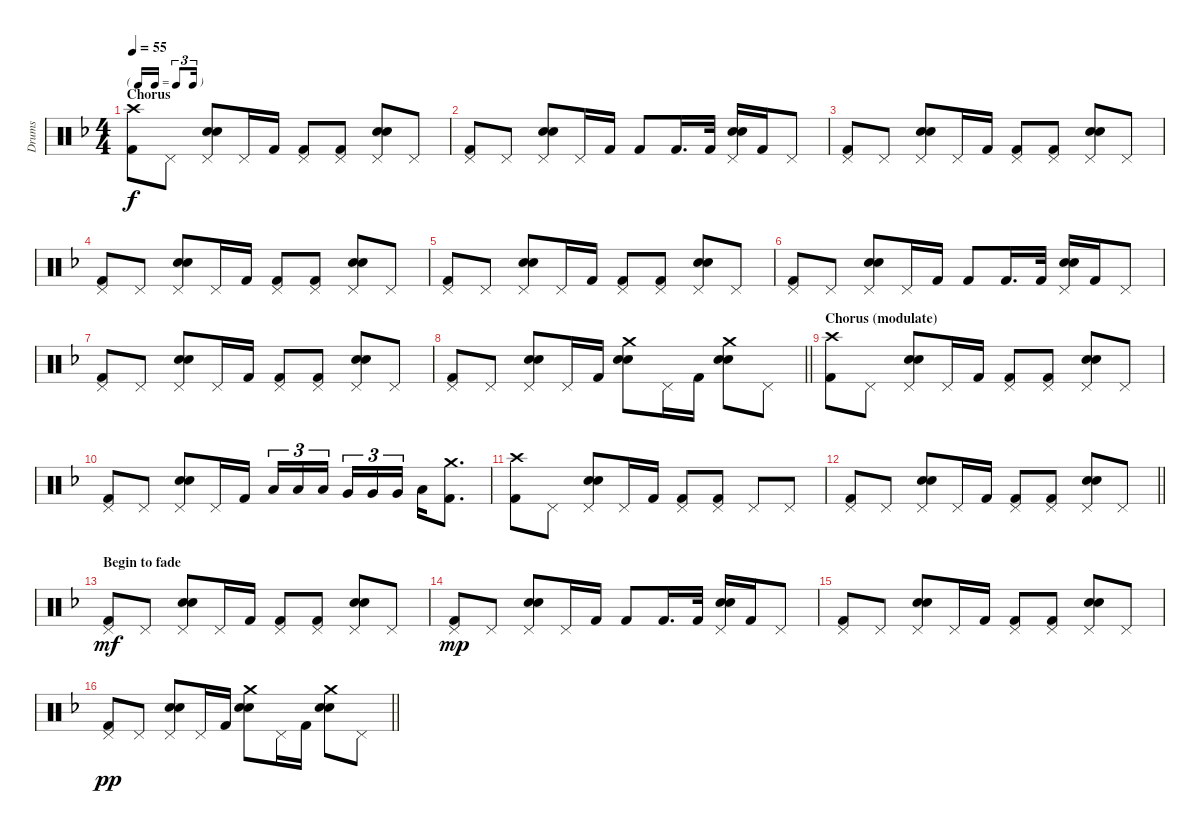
\track ("Drums" "Drums") {instrument percussion}
\staff {score}
\articulation defaults
\ts (4 4)
\tf triplet16th
\section ("" "Chorus")
\tempo 55
\clef neutral
\ks dminor
("Crash high (hit)" "Kick (hit) 2").8{dy f} "Pedal Hi-Hat (hit)".8 ("Pedal Hi-Hat (hit)" "Snare (hit) 2" "Electric Snare (hit)").8 "Pedal Hi-Hat (hit)".16 "Kick (hit) 2".16 ("Pedal Hi-Hat (hit)" "Kick (hit) 2").8 ("Pedal Hi-Hat (hit)" "Kick (hit) 2").8 ("Pedal Hi-Hat (hit)" "Snare (hit) 2" "Electric Snare (hit)").8 "Pedal Hi-Hat (hit)".8 |
("Pedal Hi-Hat (hit)" "Kick (hit) 2").8 "Pedal Hi-Hat (hit)".8 ("Pedal Hi-Hat (hit)" "Snare (hit) 2" "Electric Snare (hit)").8 "Pedal Hi-Hat (hit)".16 "Kick (hit) 2".16 "Kick (hit) 2".8 "Kick (hit) 2".16{d} "Kick (hit) 2".32 ("Pedal Hi-Hat (hit)" "Snare (hit) 2" "Electric Snare (hit)").16 "Kick (hit) 2".16 "Pedal Hi-Hat (hit)".8 |
("Pedal Hi-Hat (hit)" "Kick (hit) 2").8 "Pedal Hi-Hat (hit)".8 ("Pedal Hi-Hat (hit)" "Snare (hit) 2" "Electric Snare (hit)").8 "Pedal Hi-Hat (hit)".16 "Kick (hit) 2".16 ("Pedal Hi-Hat (hit)" "Kick (hit) 2").8 ("Pedal Hi-Hat (hit)" "Kick (hit) 2").8 ("Pedal Hi-Hat (hit)" "Snare (hit) 2" "Electric Snare (hit)").8 "Pedal Hi-Hat (hit)".8 |
("Pedal Hi-Hat (hit)" "Kick (hit) 2").8 "Pedal Hi-Hat (hit)".8 ("Pedal Hi-Hat (hit)" "Snare (hit) 2" "Electric Snare (hit)").8 "Pedal Hi-Hat (hit)".16 "Kick (hit) 2".16 ("Pedal Hi-Hat (hit)" "Kick (hit) 2").8 ("Pedal Hi-Hat (hit)" "Kick (hit) 2").8 ("Pedal Hi-Hat (hit)" "Snare (hit) 2" "Electric Snare (hit)").8 "Pedal Hi-Hat (hit)".8 |
("Pedal Hi-Hat (hit)" "Kick (hit) 2").8 "Pedal Hi-Hat (hit)".8 ("Pedal Hi-Hat (hit)" "Snare (hit) 2" "Electric Snare (hit)").8 "Pedal Hi-Hat (hit)".16 "Kick (hit) 2".16 ("Pedal Hi-Hat (hit)" "Kick (hit) 2").8 ("Pedal Hi-Hat (hit)" "Kick (hit) 2").8 ("Pedal Hi-Hat (hit)" "Snare (hit) 2" "Electric Snare (hit)").8 "Pedal Hi-Hat (hit)".8 |
("Pedal Hi-Hat (hit)" "Kick (hit) 2").8 "Pedal Hi-Hat (hit)".8 ("Pedal Hi-Hat (hit)" "Snare (hit) 2" "Electric Snare (hit)").8 "Pedal Hi-Hat (hit)".16 "Kick (hit) 2".16 "Kick (hit) 2".8 "Kick (hit) 2".16{d} "Kick (hit) 2".32 ("Pedal Hi-Hat (hit)" "Snare (hit) 2" "Electric Snare (hit)").16 "Kick (hit) 2".16 "Pedal Hi-Hat (hit)".8 |
("Pedal Hi-Hat (hit)" "Kick (hit) 2").8 "Pedal Hi-Hat (hit)".8 ("Pedal Hi-Hat (hit)" "Snare (hit) 2" "Electric Snare (hit)").8 "Pedal Hi-Hat (hit)".16 "Kick (hit) 2".16 ("Pedal Hi-Hat (hit)" "Kick (hit) 2").8 ("Pedal Hi-Hat (hit)" "Kick (hit) 2").8 ("Pedal Hi-Hat (hit)" "Snare (hit) 2" "Electric Snare (hit)").8 "Pedal Hi-Hat (hit)".8 |
\barLineRight lightlight
("Pedal Hi-Hat (hit)" "Kick (hit) 2").8 "Pedal Hi-Hat (hit)".8 ("Pedal Hi-Hat (hit)" "Snare (hit) 2" "Electric Snare (hit)").8 "Pedal Hi-Hat (hit)".16 "Kick (hit) 2".16 ("Crash medium (hit)" "Snare (hit) 2" "Electric Snare (hit)").8 "Pedal Hi-Hat (hit)".16 "Kick (hit) 2".16 ("Crash medium (hit)" "Snare (hit) 2" "Electric Snare (hit)").8 "Pedal Hi-Hat (hit)".8 |
\section ("" "Chorus (modulate)")
("Crash high (hit)" "Kick (hit) 2").8 "Pedal Hi-Hat (hit)".8 ("Pedal Hi-Hat (hit)" "Snare (hit) 2" "Electric Snare (hit)").8 "Pedal Hi-Hat (hit)".16 "Kick (hit) 2".16 ("Pedal Hi-Hat (hit)" "Kick (hit) 2").8 ("Pedal Hi-Hat (hit)" "Kick (hit) 2").8 ("Pedal Hi-Hat (hit)" "Snare (hit) 2" "Electric Snare (hit)").8 "Pedal Hi-Hat (hit)".8 |
("Pedal Hi-Hat (hit)" "Kick (hit) 2").8 "Pedal Hi-Hat (hit)".8 ("Pedal Hi-Hat (hit)" "Snare (hit) 2" "Electric Snare (hit)").8 "Pedal Hi-Hat (hit)".16 "Kick (hit) 2".16 "Low Tom (hit)".16{tu (3 2)} "Low Tom (hit)".16{tu (3 2)} "Low Tom (hit)".16{tu (3 2) beam splitsecondary} "Very Low Tom (hit)".16{tu (3 2)} "Very Low Tom (hit)".16{tu (3 2)} "Very Low Tom (hit)".16{tu (3 2)} "Low Tom (hit)".16 ("Crash medium (hit)" "Kick (hit) 2").8{d} |
("Crash high (hit)" "Kick (hit) 2").8 "Pedal Hi-Hat (hit)".8 ("Pedal Hi-Hat (hit)" "Snare (hit) 2" "Electric Snare (hit)").8 "Pedal Hi-Hat (hit)".16 "Kick (hit) 2".16 ("Pedal Hi-Hat (hit)" "Kick (hit) 2").8 ("Pedal Hi-Hat (hit)" "Kick (hit) 2").8 "Pedal Hi-Hat (hit)".8 "Pedal Hi-Hat (hit)".8 |
\barLineRight lightlight
("Pedal Hi-Hat (hit)" "Kick (hit) 2").8 "Pedal Hi-Hat (hit)".8 ("Pedal Hi-Hat (hit)" "Snare (hit) 2" "Electric Snare (hit)").8 "Pedal Hi-Hat (hit)".16 "Kick (hit) 2".16 ("Pedal Hi-Hat (hit)" "Kick (hit) 2").8 ("Pedal Hi-Hat (hit)" "Kick (hit) 2").8 ("Pedal Hi-Hat (hit)" "Snare (hit) 2" "Electric Snare (hit)").8 "Pedal Hi-Hat (hit)".8 |
\section ("" "Begin to fade")
("Pedal Hi-Hat (hit)" "Kick (hit) 2").8{dy mf} "Pedal Hi-Hat (hit)".8 ("Pedal Hi-Hat (hit)" "Snare (hit) 2" "Electric Snare (hit)").8 "Pedal Hi-Hat (hit)".16 "Kick (hit) 2".16 ("Pedal Hi-Hat (hit)" "Kick (hit) 2").8 ("Pedal Hi-Hat (hit)" "Kick (hit) 2").8 ("Pedal Hi-Hat (hit)" "Snare (hit) 2" "Electric Snare (hit)").8 "Pedal Hi-Hat (hit)".8 |
("Pedal Hi-Hat (hit)" "Kick (hit) 2").8{dy mp} "Pedal Hi-Hat (hit)".8 ("Pedal Hi-Hat (hit)" "Snare (hit) 2" "Electric Snare (hit)").8 "Pedal Hi-Hat (hit)".16 "Kick (hit) 2".16 "Kick (hit) 2".8 "Kick (hit) 2".16{d} "Kick (hit) 2".32 ("Pedal Hi-Hat (hit)" "Snare (hit) 2" "Electric Snare (hit)").16 "Kick (hit) 2".16 "Pedal Hi-Hat (hit)".8 |
("Pedal Hi-Hat (hit)" "Kick (hit) 2").8 "Pedal Hi-Hat (hit)".8 ("Pedal Hi-Hat (hit)" "Snare (hit) 2" "Electric Snare (hit)").8 "Pedal Hi-Hat (hit)".16 "Kick (hit) 2".16 ("Pedal Hi-Hat (hit)" "Kick (hit) 2").8 ("Pedal Hi-Hat (hit)" "Kick (hit) 2").8 ("Pedal Hi-Hat (hit)" "Snare (hit) 2" "Electric Snare (hit)").8 "Pedal Hi-Hat (hit)".8 |
\barLineRight lightlight
("Pedal Hi-Hat (hit)" "Kick (hit) 2").8{dy pp} "Pedal Hi-Hat (hit)".8 ("Pedal Hi-Hat (hit)" "Snare (hit) 2" "Electric Snare (hit)").8 "Pedal Hi-Hat (hit)".16 "Kick (hit) 2".16 ("Crash medium (hit)" "Snare (hit) 2" "Electric Snare (hit)").8 "Pedal Hi-Hat (hit)".16 "Kick (hit) 2".16 ("Crash medium (hit)" "Snare (hit) 2" "Electric Snare (hit)").8 "Pedal Hi-Hat (hit)".8
